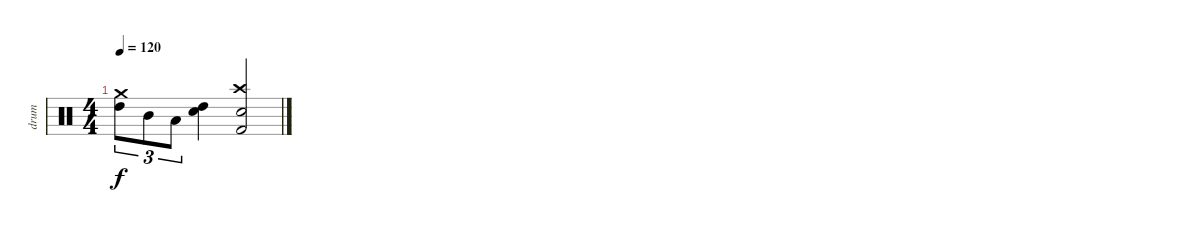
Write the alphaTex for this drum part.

\track ("drum" "drum") {instrument percussion}
\staff {score}
\articulation defaults
\ts (4 4)
\tempo 120
\clef neutral
\ks c
("Crash medium (hit)" "High Tom (hit)").8{tu (3 2) dy f} "Mid Tom (hit)".8{tu (3 2)} "Low Tom (hit)".8{tu (3 2)} ("High Tom (hit)" "Electric Snare (hit)").4 ("Crash high (hit)" "Electric Snare (hit)" "Kick (hit) 2").2
